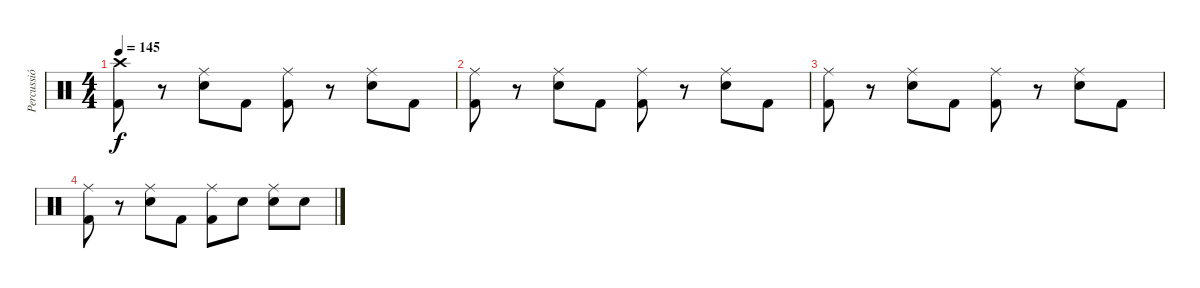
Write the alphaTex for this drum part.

\track ("Percussió" "Percussió") {instrument percussion}
\staff {score}
\articulation defaults
\ts (4 4)
\tempo 145
\clef neutral
\ks c
("Crash high (hit)" "Kick (hit) 2").8{dy f} r.8 ("Ride (middle)" "Snare (hit) 2").8 "Kick (hit) 2".8 ("Ride (middle)" "Kick (hit) 2").8 r.8 ("Ride (middle)" "Snare (hit) 2").8 "Kick (hit) 2".8 |
("Ride (middle)" "Kick (hit) 2").8 r.8 ("Ride (middle)" "Snare (hit) 2").8 "Kick (hit) 2".8 ("Ride (middle)" "Kick (hit) 2").8 r.8 ("Ride (middle)" "Snare (hit) 2").8 "Kick (hit) 2".8 |
("Ride (middle)" "Kick (hit) 2").8 r.8 ("Ride (middle)" "Snare (hit) 2").8 "Kick (hit) 2".8 ("Ride (middle)" "Kick (hit) 2").8 r.8 ("Ride (middle)" "Snare (hit) 2").8 "Kick (hit) 2".8 |
("Ride (middle)" "Kick (hit) 2").8 r.8 ("Ride (middle)" "Snare (hit) 2").8 "Kick (hit) 2".8 ("Ride (middle)" "Kick (hit) 2").8 "Snare (hit) 2".8 ("Ride (middle)" "Snare (hit) 2").8 "Snare (hit) 2".8
